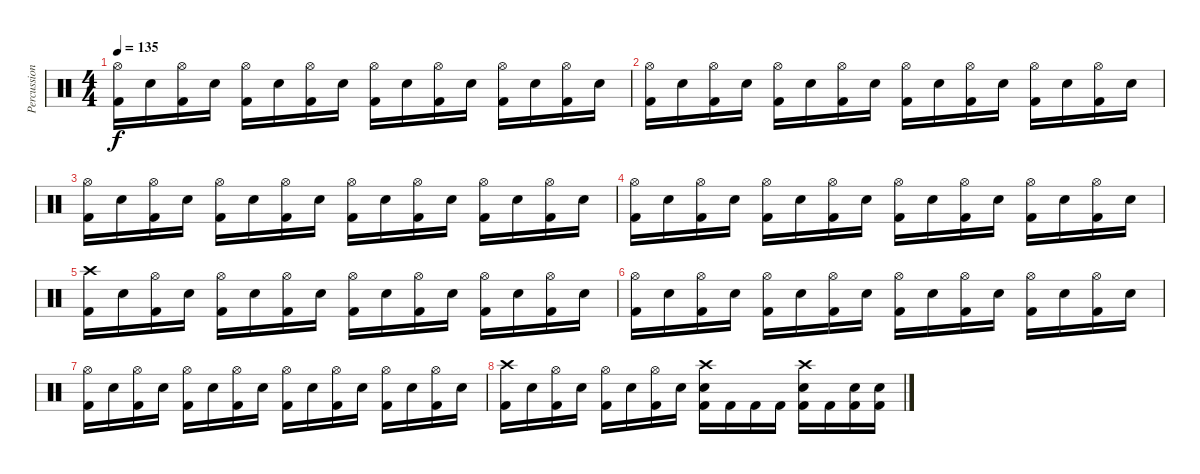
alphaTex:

\track ("Percussions" "Percussion") {instrument percussion}
\staff {score}
\articulation defaults
\ts (4 4)
\tempo 135
\clef neutral
\ks c
("Hi-Hat (open)" "Kick (hit) 2").16{dy f} "Electric Snare (hit)".16 ("Hi-Hat (open)" "Kick (hit) 2").16 "Electric Snare (hit)".16 ("Hi-Hat (open)" "Kick (hit) 2").16 "Electric Snare (hit)".16 ("Hi-Hat (open)" "Kick (hit) 2").16 "Electric Snare (hit)".16 ("Hi-Hat (open)" "Kick (hit) 2").16 "Electric Snare (hit)".16 ("Hi-Hat (open)" "Kick (hit) 2").16 "Electric Snare (hit)".16 ("Hi-Hat (open)" "Kick (hit) 2").16 "Electric Snare (hit)".16 ("Hi-Hat (open)" "Kick (hit) 2").16 "Electric Snare (hit)".16 |
("Hi-Hat (open)" "Kick (hit) 2").16 "Electric Snare (hit)".16 ("Hi-Hat (open)" "Kick (hit) 2").16 "Electric Snare (hit)".16 ("Hi-Hat (open)" "Kick (hit) 2").16 "Electric Snare (hit)".16 ("Hi-Hat (open)" "Kick (hit) 2").16 "Electric Snare (hit)".16 ("Hi-Hat (open)" "Kick (hit) 2").16 "Electric Snare (hit)".16 ("Hi-Hat (open)" "Kick (hit) 2").16 "Electric Snare (hit)".16 ("Hi-Hat (open)" "Kick (hit) 2").16 "Electric Snare (hit)".16 ("Hi-Hat (open)" "Kick (hit) 2").16 "Electric Snare (hit)".16 |
("Hi-Hat (open)" "Kick (hit) 2").16 "Electric Snare (hit)".16 ("Hi-Hat (open)" "Kick (hit) 2").16 "Electric Snare (hit)".16 ("Hi-Hat (open)" "Kick (hit) 2").16 "Electric Snare (hit)".16 ("Hi-Hat (open)" "Kick (hit) 2").16 "Electric Snare (hit)".16 ("Hi-Hat (open)" "Kick (hit) 2").16 "Electric Snare (hit)".16 ("Hi-Hat (open)" "Kick (hit) 2").16 "Electric Snare (hit)".16 ("Hi-Hat (open)" "Kick (hit) 2").16 "Electric Snare (hit)".16 ("Hi-Hat (open)" "Kick (hit) 2").16 "Electric Snare (hit)".16 |
("Hi-Hat (open)" "Kick (hit) 2").16 "Electric Snare (hit)".16 ("Hi-Hat (open)" "Kick (hit) 2").16 "Electric Snare (hit)".16 ("Hi-Hat (open)" "Kick (hit) 2").16 "Electric Snare (hit)".16 ("Hi-Hat (open)" "Kick (hit) 2").16 "Electric Snare (hit)".16 ("Hi-Hat (open)" "Kick (hit) 2").16 "Electric Snare (hit)".16 ("Hi-Hat (open)" "Kick (hit) 2").16 "Electric Snare (hit)".16 ("Hi-Hat (open)" "Kick (hit) 2").16 "Electric Snare (hit)".16 ("Hi-Hat (open)" "Kick (hit) 2").16 "Electric Snare (hit)".16 |
("Crash high (hit)" "Kick (hit) 2").16 "Electric Snare (hit)".16 ("Hi-Hat (open)" "Kick (hit) 2").16 "Electric Snare (hit)".16 ("Hi-Hat (open)" "Kick (hit) 2").16 "Electric Snare (hit)".16 ("Hi-Hat (open)" "Kick (hit) 2").16 "Electric Snare (hit)".16 ("Hi-Hat (open)" "Kick (hit) 2").16 "Electric Snare (hit)".16 ("Hi-Hat (open)" "Kick (hit) 2").16 "Electric Snare (hit)".16 ("Hi-Hat (open)" "Kick (hit) 2").16 "Electric Snare (hit)".16 ("Hi-Hat (open)" "Kick (hit) 2").16 "Electric Snare (hit)".16 |
("Hi-Hat (open)" "Kick (hit) 2").16 "Electric Snare (hit)".16 ("Hi-Hat (open)" "Kick (hit) 2").16 "Electric Snare (hit)".16 ("Hi-Hat (open)" "Kick (hit) 2").16 "Electric Snare (hit)".16 ("Hi-Hat (open)" "Kick (hit) 2").16 "Electric Snare (hit)".16 ("Hi-Hat (open)" "Kick (hit) 2").16 "Electric Snare (hit)".16 ("Hi-Hat (open)" "Kick (hit) 2").16 "Electric Snare (hit)".16 ("Hi-Hat (open)" "Kick (hit) 2").16 "Electric Snare (hit)".16 ("Hi-Hat (open)" "Kick (hit) 2").16 "Electric Snare (hit)".16 |
("Hi-Hat (open)" "Kick (hit) 2").16 "Electric Snare (hit)".16 ("Hi-Hat (open)" "Kick (hit) 2").16 "Electric Snare (hit)".16 ("Hi-Hat (open)" "Kick (hit) 2").16 "Electric Snare (hit)".16 ("Hi-Hat (open)" "Kick (hit) 2").16 "Electric Snare (hit)".16 ("Hi-Hat (open)" "Kick (hit) 2").16 "Electric Snare (hit)".16 ("Hi-Hat (open)" "Kick (hit) 2").16 "Electric Snare (hit)".16 ("Hi-Hat (open)" "Kick (hit) 2").16 "Electric Snare (hit)".16 ("Hi-Hat (open)" "Kick (hit) 2").16 "Electric Snare (hit)".16 |
("Crash high (hit)" "Kick (hit) 2").16 "Electric Snare (hit)".16 ("Hi-Hat (open)" "Kick (hit) 2").16 "Electric Snare (hit)".16 ("Hi-Hat (open)" "Kick (hit) 2").16 "Electric Snare (hit)".16 ("Hi-Hat (open)" "Kick (hit) 2").16 "Electric Snare (hit)".16 ("Crash high (hit)" "Electric Snare (hit)" "Kick (hit) 2").16 "Kick (hit) 2".16 "Kick (hit) 2".16 "Kick (hit) 2".16 ("Crash high (hit)" "Electric Snare (hit)" "Kick (hit) 2").16 "Kick (hit) 2".16 ("Electric Snare (hit)" "Kick (hit) 2").16 ("Electric Snare (hit)" "Kick (hit) 2").16
